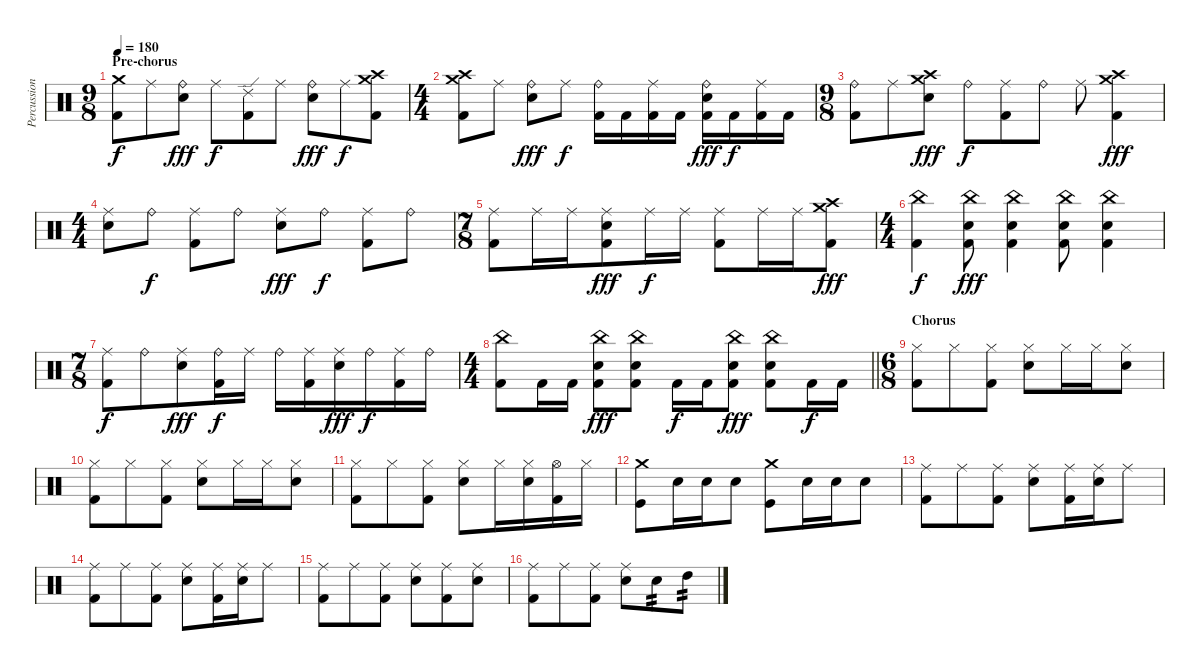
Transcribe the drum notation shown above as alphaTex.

\track ("Percussion" "Percussion") {instrument percussion}
\staff {score}
\articulation defaults
\ts (9 8)
\section ("" "Pre-chorus")
\tempo 180
\clef neutral
\ks c
("Crash medium (hit)" "Kick (hit) 2").8{dy f} "Ride (middle)".8 ("Ride (bell)" "Electric Snare (hit)").8{dy fff} "Ride (middle)".8{dy f} ("Ride (edge) 2" "Kick (hit) 2").8 "Ride (middle)".8 ("Ride (bell)" "Electric Snare (hit)").8{dy fff} "Ride (middle)".8{dy f} ("Crash medium (hit)" "Crash high (hit)" "Kick (hit) 2").8 |
\ts (4 4)
("Crash medium (hit)" "Crash high (hit)" "Kick (hit) 2").8 "Ride (middle)".8 ("Ride (bell)" "Electric Snare (hit)").8{dy fff} "Ride (middle)".8{dy f} ("Ride (bell)" "Kick (hit) 2").16 "Kick (hit) 2".16 ("Ride (middle)" "Kick (hit) 2").16 "Kick (hit) 2".16 ("Ride (bell)" "Electric Snare (hit)" "Kick (hit) 2").16{dy fff} "Kick (hit) 2".16{dy f} ("Ride (middle)" "Kick (hit) 2").16 "Kick (hit) 2".16 |
\ts (9 8)
("Ride (bell)" "Kick (hit) 2").8 "Ride (middle)".8 ("Crash high (hit)" "Crash medium (hit)" "Electric Snare (hit)").8{dy fff} "Ride (bell)".8{dy f} ("Ride (middle)" "Kick (hit) 2").8 "Ride (bell)".8 "Ride (middle)".8 ("Crash medium (hit)" "Crash high (hit)" "Kick (hit) 2").4{dy fff} |
\ts (4 4)
("Ride (middle)" "Electric Snare (hit)").8 "Ride (bell)".8{dy f} ("Ride (middle)" "Kick (hit) 2").8 "Ride (bell)".8 ("Ride (middle)" "Electric Snare (hit)").8{dy fff} "Ride (bell)".8{dy f} ("Ride (middle)" "Kick (hit) 2").8 "Ride (bell)".8 |
\ts (7 8)
("Ride (middle)" "Kick (hit) 2").8 "Ride (middle)".16 "Ride (middle)".16 ("Ride (middle)" "Electric Snare (hit)" "Kick (hit) 2").8{dy fff} "Ride (middle)".16{dy f} "Ride (middle)".16 ("Ride (middle)" "Kick (hit) 2").8 "Ride (middle)".16 "Ride (middle)".16 ("Crash high (hit)" "Crash medium (hit)" "Kick (hit) 2").8{dy fff} |
\ts (4 4)
("China (hit)" "Kick (hit) 2").4{dy f} ("China (hit)" "Electric Snare (hit)" "Kick (hit) 2").8{dy fff} ("China (hit)" "Electric Snare (hit)" "Kick (hit) 2").4 ("China (hit)" "Electric Snare (hit)" "Kick (hit) 2").8 ("China (hit)" "Electric Snare (hit)" "Kick (hit) 2").4 |
\ts (7 8)
("Ride (middle)" "Kick (hit) 2").8{dy f} "Ride (bell)".8 ("Ride (middle)" "Electric Snare (hit)").8{dy fff} ("Ride (bell)" "Kick (hit) 2").16{dy f} "Ride (middle)".16 "Ride (bell)".16 ("Ride (middle)" "Kick (hit) 2").16 ("Ride (middle)" "Electric Snare (hit)").16{dy fff} "Ride (bell)".16{dy f} ("Ride (middle)" "Kick (hit) 2").16 "Ride (bell)".16 |
\ts (4 4)
\barLineRight lightlight
("China (hit)" "Kick (hit) 2").8 "Kick (hit) 2".16 "Kick (hit) 2".16 ("China (hit)" "Electric Snare (hit)" "Kick (hit) 2").8{dy fff} ("China (hit)" "Electric Snare (hit)" "Kick (hit) 2").8 "Kick (hit) 2".16{dy f} "Kick (hit) 2".16 ("China (hit)" "Electric Snare (hit)" "Kick (hit) 2").8{dy fff} ("China (hit)" "Electric Snare (hit)" "Kick (hit) 2").8 "Kick (hit) 2".16{dy f} "Kick (hit) 2".16 |
\ts (6 8)
\section ("" "Chorus")
("Hi-Hat (closed)" "Kick (hit) 2").8 "Hi-Hat (closed)".8 ("Hi-Hat (closed)" "Kick (hit) 2").8 ("Hi-Hat (closed)" "Electric Snare (hit)").8 "Hi-Hat (closed)".16 "Hi-Hat (closed)".16 ("Hi-Hat (closed)" "Electric Snare (hit)").8 |
("Hi-Hat (closed)" "Kick (hit) 2").8 "Hi-Hat (closed)".8 ("Hi-Hat (closed)" "Kick (hit) 2").8 ("Hi-Hat (closed)" "Electric Snare (hit)").8 "Hi-Hat (closed)".16 "Hi-Hat (closed)".16 ("Hi-Hat (closed)" "Electric Snare (hit)").8 |
("Hi-Hat (closed)" "Kick (hit) 2").8 "Hi-Hat (closed)".8 ("Hi-Hat (closed)" "Kick (hit) 2").8 ("Hi-Hat (closed)" "Electric Snare (hit)").8 "Hi-Hat (closed)".16 ("Hi-Hat (closed)" "Electric Snare (hit)").16 ("Hi-Hat (open)" "Kick (hit) 2").16 "Hi-Hat (closed)".16 |
("Crash medium (hit)" "Kick (hit)").8 "Electric Snare (hit)".16 "Electric Snare (hit)".16 "Electric Snare (hit)".8 ("Crash medium (hit)" "Kick (hit)").8 "Electric Snare (hit)".16 "Electric Snare (hit)".16 "Electric Snare (hit)".8 |
("Ride (middle)" "Kick (hit) 2").8 "Ride (middle)".8 ("Ride (middle)" "Kick (hit) 2").8 ("Ride (middle)" "Electric Snare (hit)").8 ("Ride (middle)" "Kick (hit) 2").16 ("Ride (middle)" "Electric Snare (hit)").16 "Ride (middle)".8 |
("Ride (middle)" "Kick (hit) 2").8 "Ride (middle)".8 ("Ride (middle)" "Kick (hit) 2").8 ("Ride (middle)" "Electric Snare (hit)").8 ("Ride (middle)" "Kick (hit) 2").16 ("Ride (middle)" "Electric Snare (hit)").16 "Ride (middle)".8 |
("Ride (middle)" "Kick (hit) 2").8 "Ride (middle)".8 ("Ride (middle)" "Kick (hit) 2").8 ("Ride (middle)" "Electric Snare (hit)").8 ("Ride (middle)" "Kick (hit) 2").8 ("Ride (middle)" "Electric Snare (hit)").8 |
("Ride (middle)" "Kick (hit) 2").8 "Ride (middle)".8 ("Ride (middle)" "Kick (hit) 2").8 ("Ride (middle)" "Electric Snare (hit)").8 "Electric Snare (hit)".8{tp 2} "High Tom (hit)".8{tp 2}
